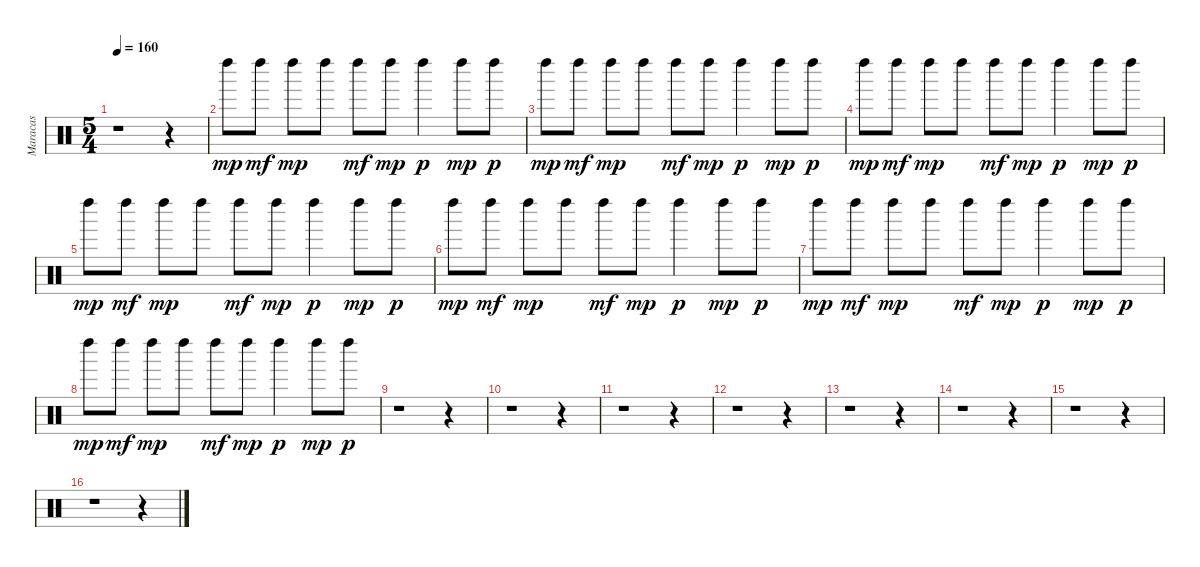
\track ("Maracas" "Maracas") {instrument percussion}
\staff {score}
\articulation defaults
\ts (5 4)
\tempo 160
\clef neutral
\ks c
r.1{dy p} r.4 |
"Left Maraca (hit)".8{dy mp} "Left Maraca (hit)".8{dy mf} "Left Maraca (hit)".8{dy mp} "Left Maraca (hit)".8 "Left Maraca (hit)".8{dy mf} "Left Maraca (hit)".8{dy mp} "Left Maraca (hit)".4{dy p} "Left Maraca (hit)".8{dy mp} "Left Maraca (hit)".8{dy p} |
"Left Maraca (hit)".8{dy mp} "Left Maraca (hit)".8{dy mf} "Left Maraca (hit)".8{dy mp} "Left Maraca (hit)".8 "Left Maraca (hit)".8{dy mf} "Left Maraca (hit)".8{dy mp} "Left Maraca (hit)".4{dy p} "Left Maraca (hit)".8{dy mp} "Left Maraca (hit)".8{dy p} |
"Left Maraca (hit)".8{dy mp} "Left Maraca (hit)".8{dy mf} "Left Maraca (hit)".8{dy mp} "Left Maraca (hit)".8 "Left Maraca (hit)".8{dy mf} "Left Maraca (hit)".8{dy mp} "Left Maraca (hit)".4{dy p} "Left Maraca (hit)".8{dy mp} "Left Maraca (hit)".8{dy p} |
"Left Maraca (hit)".8{dy mp} "Left Maraca (hit)".8{dy mf} "Left Maraca (hit)".8{dy mp} "Left Maraca (hit)".8 "Left Maraca (hit)".8{dy mf} "Left Maraca (hit)".8{dy mp} "Left Maraca (hit)".4{dy p} "Left Maraca (hit)".8{dy mp} "Left Maraca (hit)".8{dy p} |
"Left Maraca (hit)".8{dy mp} "Left Maraca (hit)".8{dy mf} "Left Maraca (hit)".8{dy mp} "Left Maraca (hit)".8 "Left Maraca (hit)".8{dy mf} "Left Maraca (hit)".8{dy mp} "Left Maraca (hit)".4{dy p} "Left Maraca (hit)".8{dy mp} "Left Maraca (hit)".8{dy p} |
"Left Maraca (hit)".8{dy mp} "Left Maraca (hit)".8{dy mf} "Left Maraca (hit)".8{dy mp} "Left Maraca (hit)".8 "Left Maraca (hit)".8{dy mf} "Left Maraca (hit)".8{dy mp} "Left Maraca (hit)".4{dy p} "Left Maraca (hit)".8{dy mp} "Left Maraca (hit)".8{dy p} |
"Left Maraca (hit)".8{dy mp} "Left Maraca (hit)".8{dy mf} "Left Maraca (hit)".8{dy mp} "Left Maraca (hit)".8 "Left Maraca (hit)".8{dy mf} "Left Maraca (hit)".8{dy mp} "Left Maraca (hit)".4{dy p} "Left Maraca (hit)".8{dy mp} "Left Maraca (hit)".8{dy p} |
r.1 r.4 |
r.1 r.4 |
r.1 r.4 |
r.1 r.4 |
r.1 r.4 |
r.1 r.4 |
r.1 r.4 |
r.1 r.4
